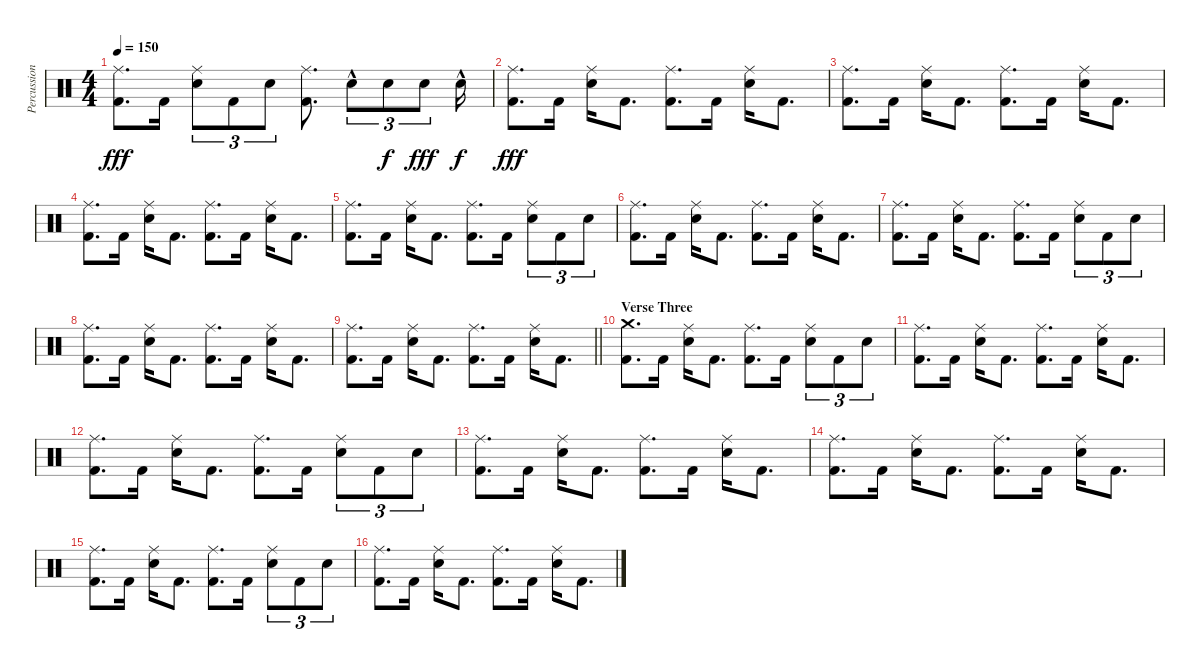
\track ("Percussion" "Percussion") {instrument percussion}
\staff {score}
\articulation defaults
\ts (4 4)
\tempo 150
\clef neutral
\ks c
("Kick (hit) 2" "Ride (middle)").8{d dy fff} "Kick (hit) 2".16 ("Ride (middle)" "Snare (hit) 2").8{tu (3 2)} "Kick (hit) 2".8{tu (3 2)} "Snare (hit) 2".8{tu (3 2)} ("Kick (hit) 2" "Ride (middle)").8{d} "Snare (hit) 2"{hac}.8{tu (3 2)} "Snare (hit) 2".8{tu (3 2) dy f} "Snare (hit) 2".8{tu (3 2) dy fff} "Snare (hit) 2"{hac}.16{dy f} |
("Kick (hit) 2" "Ride (middle)").8{d dy fff} "Kick (hit) 2".16 ("Ride (middle)" "Snare (hit) 2").16 "Kick (hit) 2".8{d} ("Ride (middle)" "Kick (hit) 2").8{d} "Kick (hit) 2".16 ("Ride (middle)" "Snare (hit) 2").16 "Kick (hit) 2".8{d} |
("Kick (hit) 2" "Ride (middle)").8{d} "Kick (hit) 2".16 ("Ride (middle)" "Snare (hit) 2").16 "Kick (hit) 2".8{d} ("Ride (middle)" "Kick (hit) 2").8{d} "Kick (hit) 2".16 ("Ride (middle)" "Snare (hit) 2").16 "Kick (hit) 2".8{d} |
("Kick (hit) 2" "Ride (middle)").8{d} "Kick (hit) 2".16 ("Ride (middle)" "Snare (hit) 2").16 "Kick (hit) 2".8{d} ("Ride (middle)" "Kick (hit) 2").8{d} "Kick (hit) 2".16 ("Ride (middle)" "Snare (hit) 2").16 "Kick (hit) 2".8{d} |
("Kick (hit) 2" "Ride (middle)").8{d} "Kick (hit) 2".16 ("Ride (middle)" "Snare (hit) 2").16 "Kick (hit) 2".8{d} ("Ride (middle)" "Kick (hit) 2").8{d} "Kick (hit) 2".16 ("Ride (middle)" "Snare (hit) 2").8{tu (3 2)} "Kick (hit) 2".8{tu (3 2)} "Snare (hit) 2".8{tu (3 2)} |
("Kick (hit) 2" "Ride (middle)").8{d} "Kick (hit) 2".16 ("Ride (middle)" "Snare (hit) 2").16 "Kick (hit) 2".8{d} ("Ride (middle)" "Kick (hit) 2").8{d} "Kick (hit) 2".16 ("Ride (middle)" "Snare (hit) 2").16 "Kick (hit) 2".8{d} |
("Kick (hit) 2" "Ride (middle)").8{d} "Kick (hit) 2".16 ("Ride (middle)" "Snare (hit) 2").16 "Kick (hit) 2".8{d} ("Ride (middle)" "Kick (hit) 2").8{d} "Kick (hit) 2".16 ("Ride (middle)" "Snare (hit) 2").8{tu (3 2)} "Kick (hit) 2".8{tu (3 2)} "Snare (hit) 2".8{tu (3 2)} |
("Kick (hit) 2" "Ride (middle)").8{d} "Kick (hit) 2".16 ("Ride (middle)" "Snare (hit) 2").16 "Kick (hit) 2".8{d} ("Ride (middle)" "Kick (hit) 2").8{d} "Kick (hit) 2".16 ("Ride (middle)" "Snare (hit) 2").16 "Kick (hit) 2".8{d} |
\barLineRight lightlight
("Kick (hit) 2" "Ride (middle)").8{d} "Kick (hit) 2".16 ("Ride (middle)" "Snare (hit) 2").16 "Kick (hit) 2".8{d} ("Ride (middle)" "Kick (hit) 2").8{d} "Kick (hit) 2".16 ("Ride (middle)" "Snare (hit) 2").16 "Kick (hit) 2".8{d} |
\section ("" "Verse Three")
("Crash medium (hit)" "Kick (hit) 2").8{d} "Kick (hit) 2".16 ("Ride (middle)" "Snare (hit) 2").16 "Kick (hit) 2".8{d} ("Ride (middle)" "Kick (hit) 2").8{d} "Kick (hit) 2".16 ("Ride (middle)" "Snare (hit) 2").8{tu (3 2)} "Kick (hit) 2".8{tu (3 2)} "Snare (hit) 2".8{tu (3 2)} |
("Kick (hit) 2" "Ride (middle)").8{d} "Kick (hit) 2".16 ("Ride (middle)" "Snare (hit) 2").16 "Kick (hit) 2".8{d} ("Ride (middle)" "Kick (hit) 2").8{d} "Kick (hit) 2".16 ("Ride (middle)" "Snare (hit) 2").16 "Kick (hit) 2".8{d} |
("Kick (hit) 2" "Ride (middle)").8{d} "Kick (hit) 2".16 ("Ride (middle)" "Snare (hit) 2").16 "Kick (hit) 2".8{d} ("Ride (middle)" "Kick (hit) 2").8{d} "Kick (hit) 2".16 ("Ride (middle)" "Snare (hit) 2").8{tu (3 2)} "Kick (hit) 2".8{tu (3 2)} "Snare (hit) 2".8{tu (3 2)} |
("Kick (hit) 2" "Ride (middle)").8{d} "Kick (hit) 2".16 ("Ride (middle)" "Snare (hit) 2").16 "Kick (hit) 2".8{d} ("Ride (middle)" "Kick (hit) 2").8{d} "Kick (hit) 2".16 ("Ride (middle)" "Snare (hit) 2").16 "Kick (hit) 2".8{d} |
("Kick (hit) 2" "Ride (middle)").8{d} "Kick (hit) 2".16 ("Ride (middle)" "Snare (hit) 2").16 "Kick (hit) 2".8{d} ("Ride (middle)" "Kick (hit) 2").8{d} "Kick (hit) 2".16 ("Ride (middle)" "Snare (hit) 2").16 "Kick (hit) 2".8{d} |
("Kick (hit) 2" "Ride (middle)").8{d} "Kick (hit) 2".16 ("Ride (middle)" "Snare (hit) 2").16 "Kick (hit) 2".8{d} ("Ride (middle)" "Kick (hit) 2").8{d} "Kick (hit) 2".16 ("Ride (middle)" "Snare (hit) 2").8{tu (3 2)} "Kick (hit) 2".8{tu (3 2)} "Snare (hit) 2".8{tu (3 2)} |
("Kick (hit) 2" "Ride (middle)").8{d} "Kick (hit) 2".16 ("Ride (middle)" "Snare (hit) 2").16 "Kick (hit) 2".8{d} ("Ride (middle)" "Kick (hit) 2").8{d} "Kick (hit) 2".16 ("Ride (middle)" "Snare (hit) 2").16 "Kick (hit) 2".8{d}
